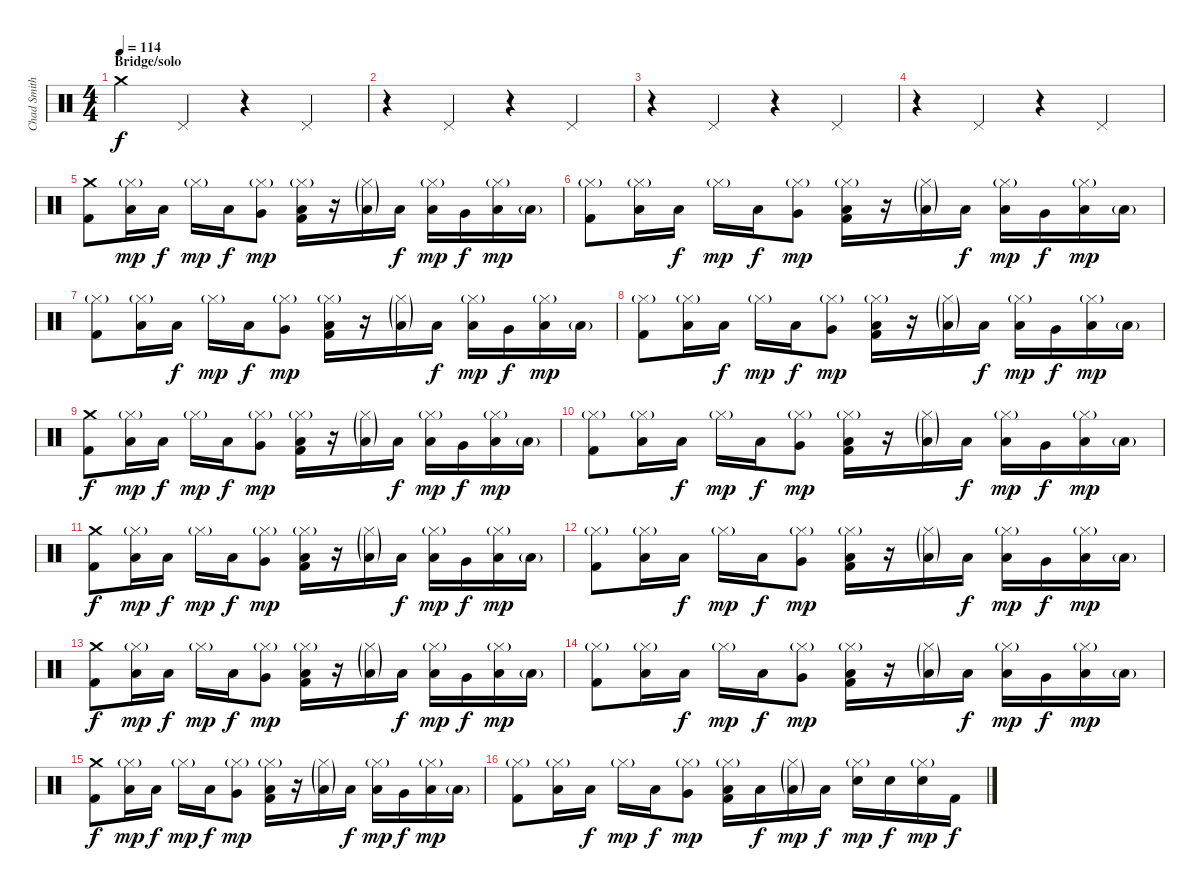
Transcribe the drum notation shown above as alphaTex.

\track ("Chad Smith" "Chad Smith") {instrument percussion}
\staff {score}
\articulation defaults
\ts (4 4)
\section ("" "Bridge/solo")
\tempo 114
\clef neutral
\ks c "Crash medium (hit)".4{dy f} "Pedal Hi-Hat (hit)".4
r.4 "Pedal Hi-Hat (hit)".4 |
r.4 "Pedal Hi-Hat (hit)".4 r.4 "Pedal Hi-Hat (hit)".4 |
r.4 "Pedal Hi-Hat (hit)".4 r.4 "Pedal Hi-Hat (hit)".4 |
r.4 "Pedal Hi-Hat (hit)".4 r.4 "Pedal Hi-Hat (hit)".4 |
("Crash medium (hit)" "Kick (hit) 2").8 ("Hi-Hat (closed)"{g} "Low Tom (hit)").16{dy mp} "Low Tom (hit)".16{dy f} "Hi-Hat (closed)"{g}.16{dy mp} "Low Tom (hit)".16{dy f} ("Hi-Hat (closed)"{g} "Very Low Tom (hit)").8{dy mp} ("Hi-Hat (closed)"{g} "Low Tom (hit)" "Kick (hit) 2").16 r.16 ("Hi-Hat (closed)"{g} "Low Tom (hit)"{g}).16 "Low Tom (hit)".16{dy f} ("Hi-Hat (closed)"{g} "Low Tom (hit)").16{dy mp} "Very Low Tom (hit)".16{dy f} ("Hi-Hat (closed)"{g} "Low Floor Tom (hit)").16{dy mp} "Low Floor Tom (hit)"{g}.16 |
("Hi-Hat (closed)"{g} "Kick (hit) 2").8 ("Hi-Hat (closed)"{g} "Low Tom (hit)").16 "Low Tom (hit)".16{dy f} "Hi-Hat (closed)"{g}.16{dy mp} "Low Tom (hit)".16{dy f} ("Hi-Hat (closed)"{g} "Very Low Tom (hit)").8{dy mp} ("Hi-Hat (closed)"{g} "Low Tom (hit)" "Kick (hit) 2").16 r.16 ("Hi-Hat (closed)"{g} "Low Tom (hit)"{g}).16 "Low Tom (hit)".16{dy f} ("Hi-Hat (closed)"{g} "Low Tom (hit)").16{dy mp} "Very Low Tom (hit)".16{dy f} ("Hi-Hat (closed)"{g} "Low Floor Tom (hit)").16{dy mp} "Low Floor Tom (hit)"{g}.16 |
("Hi-Hat (closed)"{g} "Kick (hit) 2").8 ("Hi-Hat (closed)"{g} "Low Tom (hit)").16 "Low Tom (hit)".16{dy f} "Hi-Hat (closed)"{g}.16{dy mp} "Low Tom (hit)".16{dy f} ("Hi-Hat (closed)"{g} "Very Low Tom (hit)").8{dy mp} ("Hi-Hat (closed)"{g} "Low Tom (hit)" "Kick (hit) 2").16 r.16 ("Hi-Hat (closed)"{g} "Low Tom (hit)"{g}).16 "Low Tom (hit)".16{dy f} ("Hi-Hat (closed)"{g} "Low Tom (hit)").16{dy mp} "Very Low Tom (hit)".16{dy f} ("Hi-Hat (closed)"{g} "Low Floor Tom (hit)").16{dy mp} "Low Floor Tom (hit)"{g}.16 |
("Hi-Hat (closed)"{g} "Kick (hit) 2").8 ("Hi-Hat (closed)"{g} "Low Tom (hit)").16 "Low Tom (hit)".16{dy f} "Hi-Hat (closed)"{g}.16{dy mp} "Low Tom (hit)".16{dy f} ("Hi-Hat (closed)"{g} "Very Low Tom (hit)").8{dy mp} ("Hi-Hat (closed)"{g} "Low Tom (hit)" "Kick (hit) 2").16 r.16 ("Hi-Hat (closed)"{g} "Low Tom (hit)"{g}).16 "Low Tom (hit)".16{dy f} ("Hi-Hat (closed)"{g} "Low Tom (hit)").16{dy mp} "Very Low Tom (hit)".16{dy f} ("Hi-Hat (closed)"{g} "Low Floor Tom (hit)").16{dy mp} "Low Floor Tom (hit)"{g}.16 |
("Crash medium (hit)" "Kick (hit) 2").8{dy f} ("Hi-Hat (closed)"{g} "Low Tom (hit)").16{dy mp} "Low Tom (hit)".16{dy f} "Hi-Hat (closed)"{g}.16{dy mp} "Low Tom (hit)".16{dy f} ("Hi-Hat (closed)"{g} "Very Low Tom (hit)").8{dy mp} ("Hi-Hat (closed)"{g} "Low Tom (hit)" "Kick (hit) 2").16 r.16 ("Hi-Hat (closed)"{g} "Low Tom (hit)"{g}).16 "Low Tom (hit)".16{dy f} ("Hi-Hat (closed)"{g} "Low Tom (hit)").16{dy mp} "Very Low Tom (hit)".16{dy f} ("Hi-Hat (closed)"{g} "Low Floor Tom (hit)").16{dy mp} "Low Floor Tom (hit)"{g}.16 |
("Hi-Hat (closed)"{g} "Kick (hit) 2").8 ("Hi-Hat (closed)"{g} "Low Tom (hit)").16 "Low Tom (hit)".16{dy f} "Hi-Hat (closed)"{g}.16{dy mp} "Low Tom (hit)".16{dy f} ("Hi-Hat (closed)"{g} "Very Low Tom (hit)").8{dy mp} ("Hi-Hat (closed)"{g} "Low Tom (hit)" "Kick (hit) 2").16 r.16 ("Hi-Hat (closed)"{g} "Low Tom (hit)"{g}).16 "Low Tom (hit)".16{dy f} ("Hi-Hat (closed)"{g} "Low Tom (hit)").16{dy mp} "Very Low Tom (hit)".16{dy f} ("Hi-Hat (closed)"{g} "Low Floor Tom (hit)").16{dy mp} "Low Floor Tom (hit)"{g}.16 |
("Crash medium (hit)" "Kick (hit) 2").8{dy f} ("Hi-Hat (closed)"{g} "Low Tom (hit)").16{dy mp} "Low Tom (hit)".16{dy f} "Hi-Hat (closed)"{g}.16{dy mp} "Low Tom (hit)".16{dy f} ("Hi-Hat (closed)"{g} "Very Low Tom (hit)").8{dy mp} ("Hi-Hat (closed)"{g} "Low Tom (hit)" "Kick (hit) 2").16 r.16 ("Hi-Hat (closed)"{g} "Low Tom (hit)"{g}).16 "Low Tom (hit)".16{dy f} ("Hi-Hat (closed)"{g} "Low Tom (hit)").16{dy mp} "Very Low Tom (hit)".16{dy f} ("Hi-Hat (closed)"{g} "Low Floor Tom (hit)").16{dy mp} "Low Floor Tom (hit)"{g}.16 |
("Hi-Hat (closed)"{g} "Kick (hit) 2").8 ("Hi-Hat (closed)"{g} "Low Tom (hit)").16 "Low Tom (hit)".16{dy f} "Hi-Hat (closed)"{g}.16{dy mp} "Low Tom (hit)".16{dy f} ("Hi-Hat (closed)"{g} "Very Low Tom (hit)").8{dy mp} ("Hi-Hat (closed)"{g} "Low Tom (hit)" "Kick (hit) 2").16 r.16 ("Hi-Hat (closed)"{g} "Low Tom (hit)"{g}).16 "Low Tom (hit)".16{dy f} ("Hi-Hat (closed)"{g} "Low Tom (hit)").16{dy mp} "Very Low Tom (hit)".16{dy f} ("Hi-Hat (closed)"{g} "Low Floor Tom (hit)").16{dy mp} "Low Floor Tom (hit)"{g}.16 |
("Crash medium (hit)" "Kick (hit) 2").8{dy f} ("Hi-Hat (closed)"{g} "Low Tom (hit)").16{dy mp} "Low Tom (hit)".16{dy f} "Hi-Hat (closed)"{g}.16{dy mp} "Low Tom (hit)".16{dy f} ("Hi-Hat (closed)"{g} "Very Low Tom (hit)").8{dy mp} ("Hi-Hat (closed)"{g} "Low Tom (hit)" "Kick (hit) 2").16 r.16 ("Hi-Hat (closed)"{g} "Low Tom (hit)"{g}).16 "Low Tom (hit)".16{dy f} ("Hi-Hat (closed)"{g} "Low Tom (hit)").16{dy mp} "Very Low Tom (hit)".16{dy f} ("Hi-Hat (closed)"{g} "Low Floor Tom (hit)").16{dy mp} "Low Floor Tom (hit)"{g}.16 |
("Hi-Hat (closed)"{g} "Kick (hit) 2").8 ("Hi-Hat (closed)"{g} "Low Tom (hit)").16 "Low Tom (hit)".16{dy f} "Hi-Hat (closed)"{g}.16{dy mp} "Low Tom (hit)".16{dy f} ("Hi-Hat (closed)"{g} "Very Low Tom (hit)").8{dy mp} ("Hi-Hat (closed)"{g} "Low Tom (hit)" "Kick (hit) 2").16 r.16 ("Hi-Hat (closed)"{g} "Low Tom (hit)"{g}).16 "Low Tom (hit)".16{dy f} ("Hi-Hat (closed)"{g} "Low Tom (hit)").16{dy mp} "Very Low Tom (hit)".16{dy f} ("Hi-Hat (closed)"{g} "Low Floor Tom (hit)").16{dy mp} "Low Floor Tom (hit)"{g}.16 |
("Crash medium (hit)" "Kick (hit) 2").8{dy f} ("Hi-Hat (closed)"{g} "Low Tom (hit)").16{dy mp} "Low Tom (hit)".16{dy f} "Hi-Hat (closed)"{g}.16{dy mp} "Low Tom (hit)".16{dy f} ("Hi-Hat (closed)"{g} "Very Low Tom (hit)").8{dy mp} ("Hi-Hat (closed)"{g} "Low Tom (hit)" "Kick (hit) 2").16 r.16 ("Hi-Hat (closed)"{g} "Low Tom (hit)"{g}).16 "Low Tom (hit)".16{dy f} ("Hi-Hat (closed)"{g} "Low Tom (hit)").16{dy mp} "Very Low Tom (hit)".16{dy f} ("Hi-Hat (closed)"{g} "Low Floor Tom (hit)").16{dy mp} "Low Floor Tom (hit)"{g}.16 |
("Hi-Hat (closed)"{g} "Kick (hit) 2").8 ("Hi-Hat (closed)"{g} "Low Tom (hit)").16 "Low Tom (hit)".16{dy f} "Hi-Hat (closed)"{g}.16{dy mp} "Low Tom (hit)".16{dy f} ("Hi-Hat (closed)"{g} "Very Low Tom (hit)").8{dy mp} ("Hi-Hat (closed)"{g} "Low Tom (hit)" "Kick (hit) 2").16 "Low Tom (hit)".16{dy f} ("Hi-Hat (closed)"{g} "Low Tom (hit)"{g}).16{dy mp} "Low Tom (hit)".16{dy f} ("Hi-Hat (closed)"{g} "Snare (hit) 2").16{dy mp} "Snare (hit) 2".16{dy f} ("Hi-Hat (closed)"{g} "Snare (hit) 2").16{dy mp} "Kick (hit) 2".16{dy f}
